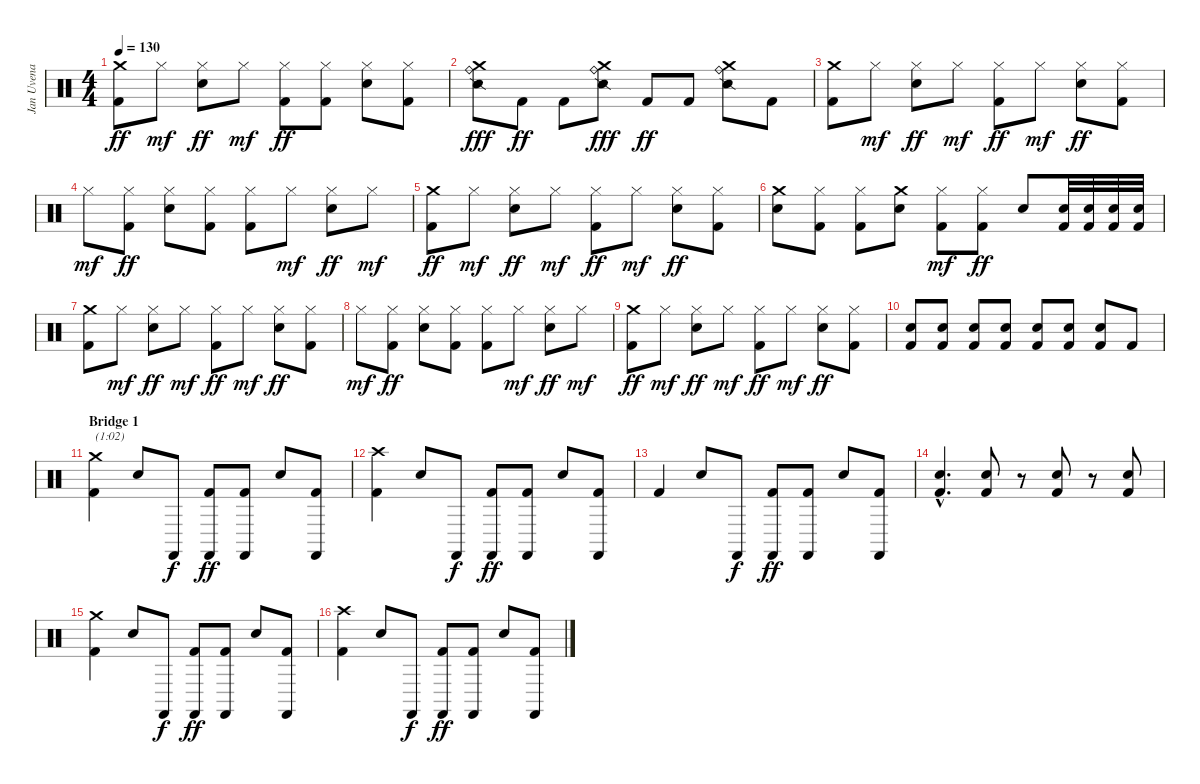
\track ("Jan Uvena" "Jan Uvena") {instrument percussion}
\staff {score}
\articulation defaults
\ts (4 4)
\tempo 130
\clef neutral
\ks c
("Crash medium (hit)" "Kick (hit) 2").8{dy ff} "Hi-Hat (closed)".8{dy mf} ("Hi-Hat (closed)" "Snare (hit) 2").8{dy ff} "Hi-Hat (closed)".8{dy mf} ("Hi-Hat (closed)" "Kick (hit) 2").8{dy ff} ("Hi-Hat (closed)" "Kick (hit) 2").8 ("Hi-Hat (closed)" "Snare (hit) 2").8 ("Hi-Hat (closed)" "Kick (hit) 2").8 |
("Crash medium (hit)" "Ride (bell)" "Snare (side stick) 2").8{dy fff} "Kick (hit) 2".8{dy ff} "Kick (hit) 2".8 ("Crash medium (hit)" "Ride (bell)" "Snare (side stick) 2").8{dy fff} "Kick (hit) 2".8{dy ff} "Kick (hit) 2".8 ("Crash medium (hit)" "Ride (bell)" "Snare (side stick) 2").8 "Kick (hit) 2".8 |
("Crash medium (hit)" "Kick (hit) 2").8 "Hi-Hat (closed)".8{dy mf} ("Hi-Hat (closed)" "Snare (hit) 2").8{dy ff} "Hi-Hat (closed)".8{dy mf} ("Hi-Hat (closed)" "Kick (hit) 2").8{dy ff} "Hi-Hat (closed)".8{dy mf} ("Hi-Hat (closed)" "Snare (hit) 2").8{dy ff} ("Hi-Hat (closed)" "Kick (hit) 2").8 |
"Hi-Hat (closed)".8{dy mf} ("Hi-Hat (closed)" "Kick (hit) 2").8{dy ff} ("Hi-Hat (closed)" "Snare (hit) 2").8 ("Hi-Hat (closed)" "Kick (hit) 2").8 ("Hi-Hat (closed)" "Kick (hit) 2").8 "Hi-Hat (closed)".8{dy mf} ("Hi-Hat (closed)" "Snare (hit) 2").8{dy ff} "Hi-Hat (closed)".8{dy mf} |
("Crash medium (hit)" "Kick (hit) 2").8{dy ff} "Hi-Hat (closed)".8{dy mf} ("Hi-Hat (closed)" "Snare (hit) 2").8{dy ff} "Hi-Hat (closed)".8{dy mf} ("Hi-Hat (closed)" "Kick (hit) 2").8{dy ff} "Hi-Hat (closed)".8{dy mf} ("Hi-Hat (closed)" "Snare (hit) 2").8{dy ff} ("Hi-Hat (closed)" "Kick (hit) 2").8 |
("Crash medium (hit)" "Snare (hit) 2").8 ("Hi-Hat (closed)" "Kick (hit) 2").8 ("Hi-Hat (closed)" "Kick (hit) 2").8 ("Crash medium (hit)" "Snare (hit) 2").8 ("Hi-Hat (closed)" "Kick (hit) 2").8{dy mf} ("Hi-Hat (closed)" "Kick (hit) 2").8{dy ff} "Snare (hit) 2".8 ("Snare (hit) 2" "Kick (hit) 2").32 ("Snare (hit) 2" "Kick (hit) 2").32 ("Snare (hit) 2" "Kick (hit) 2").32 ("Snare (hit) 2" "Kick (hit) 2").32 |
("Crash medium (hit)" "Kick (hit) 2").8 "Hi-Hat (closed)".8{dy mf} ("Hi-Hat (closed)" "Snare (hit) 2").8{dy ff} "Hi-Hat (closed)".8{dy mf} ("Hi-Hat (closed)" "Kick (hit) 2").8{dy ff} "Hi-Hat (closed)".8{dy mf} ("Hi-Hat (closed)" "Snare (hit) 2").8{dy ff} ("Hi-Hat (closed)" "Kick (hit) 2").8 |
"Hi-Hat (closed)".8{dy mf} ("Hi-Hat (closed)" "Kick (hit) 2").8{dy ff} ("Hi-Hat (closed)" "Snare (hit) 2").8 ("Hi-Hat (closed)" "Kick (hit) 2").8 ("Hi-Hat (closed)" "Kick (hit) 2").8 "Hi-Hat (closed)".8{dy mf} ("Hi-Hat (closed)" "Snare (hit) 2").8{dy ff} "Hi-Hat (closed)".8{dy mf} |
("Crash medium (hit)" "Kick (hit) 2").8{dy ff} "Hi-Hat (closed)".8{dy mf} ("Hi-Hat (closed)" "Snare (hit) 2").8{dy ff} "Hi-Hat (closed)".8{dy mf} ("Hi-Hat (closed)" "Kick (hit) 2").8{dy ff} "Hi-Hat (closed)".8{dy mf} ("Hi-Hat (closed)" "Snare (hit) 2").8{dy ff} ("Hi-Hat (closed)" "Kick (hit) 2").8 |
("Snare (hit) 2" "Kick (hit) 2").8 ("Snare (hit) 2" "Kick (hit) 2").8 ("Snare (hit) 2" "Kick (hit) 2").8 ("Snare (hit) 2" "Kick (hit) 2").8 ("Snare (hit) 2" "Kick (hit) 2").8 ("Snare (hit) 2" "Kick (hit) 2").8 ("Snare (hit) 2" "Kick (hit) 2").8 "Kick (hit) 2".8 |
\section ("" "Bridge 1")
("Crash medium (hit)" "Kick (hit) 2").4{txt "(1:02)"} "Snare (hit) 2".8 "Castanets (hit)".8{dy f} ("Castanets (hit)" "Kick (hit) 2").8{dy ff} ("Castanets (hit)" "Kick (hit) 2").8 "Snare (hit) 2".8 ("Castanets (hit)" "Kick (hit) 2").8 |
("Crash high (hit)" "Kick (hit) 2").4 "Snare (hit) 2".8 "Castanets (hit)".8{dy f} ("Castanets (hit)" "Kick (hit) 2").8{dy ff} ("Castanets (hit)" "Kick (hit) 2").8 "Snare (hit) 2".8 ("Castanets (hit)" "Kick (hit) 2").8 |
"Kick (hit) 2".4 "Snare (hit) 2".8 "Castanets (hit)".8{dy f} ("Castanets (hit)" "Kick (hit) 2").8{dy ff} ("Castanets (hit)" "Kick (hit) 2").8 "Snare (hit) 2".8 ("Castanets (hit)" "Kick (hit) 2").8 |
("Snare (hit) 2"{hac} "Kick (hit) 2"{hac}).4{d} ("Snare (hit) 2" "Kick (hit) 2").8 r.8 ("Snare (hit) 2" "Kick (hit) 2").8 r.8 ("Snare (hit) 2" "Kick (hit) 2").8 |
("Crash medium (hit)" "Kick (hit) 2").4 "Snare (hit) 2".8 "Castanets (hit)".8{dy f} ("Castanets (hit)" "Kick (hit) 2").8{dy ff} ("Castanets (hit)" "Kick (hit) 2").8 "Snare (hit) 2".8 ("Castanets (hit)" "Kick (hit) 2").8 |
("Crash high (hit)" "Kick (hit) 2").4 "Snare (hit) 2".8 "Castanets (hit)".8{dy f} ("Castanets (hit)" "Kick (hit) 2").8{dy ff} ("Castanets (hit)" "Kick (hit) 2").8 "Snare (hit) 2".8 ("Castanets (hit)" "Kick (hit) 2").8
